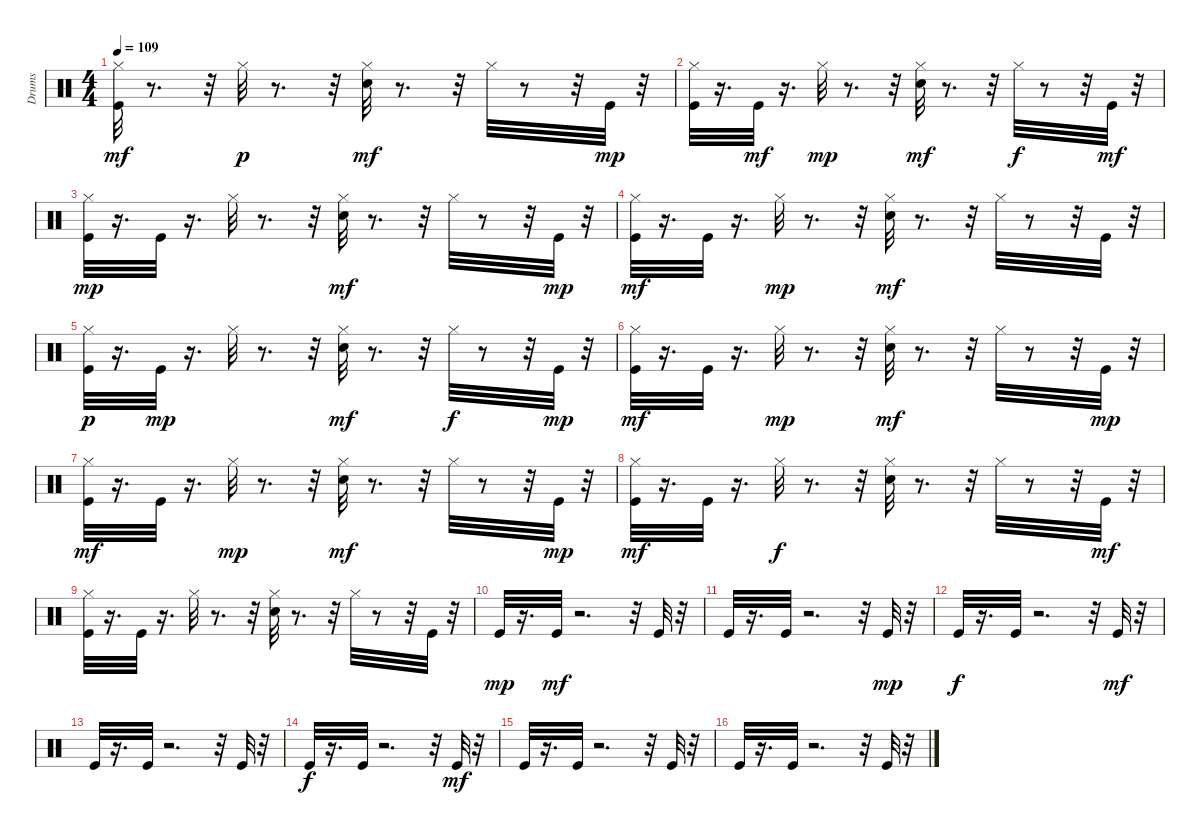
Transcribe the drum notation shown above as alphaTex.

\track ("Drums" "Drums") {solo instrument percussion}
\staff {score}
\articulation defaults
\ts (4 4)
\tempo 109
\clef neutral
\ks c
("Kick (hit)" "Hi-Hat (closed)").32{dy mf} r.8{d} r.32 "Hi-Hat (closed)".32{dy p} r.8{d} r.32 ("Hi-Hat (closed)" "Electric Snare (hit)").32{dy mf} r.8{d} r.32 "Hi-Hat (closed)".32 r.8 r.32 "Kick (hit)".32{dy mp} r.32 |
("Hi-Hat (closed)" "Kick (hit)").32 r.16{d} "Kick (hit)".32{dy mf} r.16{d} "Hi-Hat (closed)".32{dy mp} r.8{d} r.32 ("Hi-Hat (closed)" "Electric Snare (hit)").32{dy mf} r.8{d} r.32 "Hi-Hat (closed)".32{dy f} r.8 r.32 "Kick (hit)".32{dy mf} r.32 |
("Kick (hit)" "Hi-Hat (closed)").32{dy mp} r.16{d} "Kick (hit)".32 r.16{d} "Hi-Hat (closed)".32 r.8{d} r.32 ("Electric Snare (hit)" "Hi-Hat (closed)").32{dy mf} r.8{d} r.32 "Hi-Hat (closed)".32 r.8 r.32 "Kick (hit)".32{dy mp} r.32 |
("Hi-Hat (closed)" "Kick (hit)").32{dy mf} r.16{d} "Kick (hit)".32 r.16{d} "Hi-Hat (closed)".32{dy mp} r.8{d} r.32 ("Electric Snare (hit)" "Hi-Hat (closed)").32{dy mf} r.8{d} r.32 "Hi-Hat (closed)".32 r.8 r.32 "Kick (hit)".32 r.32 |
("Kick (hit)" "Hi-Hat (closed)").32{dy p} r.16{d} "Kick (hit)".32{dy mp} r.16{d} "Hi-Hat (closed)".32 r.8{d} r.32 ("Electric Snare (hit)" "Hi-Hat (closed)").32{dy mf} r.8{d} r.32 "Hi-Hat (closed)".32{dy f} r.8 r.32 "Kick (hit)".32{dy mp} r.32 |
("Hi-Hat (closed)" "Kick (hit)").32{dy mf} r.16{d} "Kick (hit)".32 r.16{d} "Hi-Hat (closed)".32{dy mp} r.8{d} r.32 ("Electric Snare (hit)" "Hi-Hat (closed)").32{dy mf} r.8{d} r.32 "Hi-Hat (closed)".32 r.8 r.32 "Kick (hit)".32{dy mp} r.32 |
("Hi-Hat (closed)" "Kick (hit)").32{dy mf} r.16{d} "Kick (hit)".32 r.16{d} "Hi-Hat (closed)".32{dy mp} r.8{d} r.32 ("Electric Snare (hit)" "Hi-Hat (closed)").32{dy mf} r.8{d} r.32 "Hi-Hat (closed)".32 r.8 r.32 "Kick (hit)".32{dy mp} r.32 |
("Kick (hit)" "Hi-Hat (closed)").32{dy mf} r.16{d} "Kick (hit)".32 r.16{d} "Hi-Hat (closed)".32{dy f} r.8{d} r.32 ("Electric Snare (hit)" "Hi-Hat (closed)").32 r.8{d} r.32 "Hi-Hat (closed)".32 r.8 r.32 "Kick (hit)".32{dy mf} r.32 |
("Hi-Hat (closed)" "Kick (hit)").32 r.16{d} "Kick (hit)".32 r.16{d} "Hi-Hat (closed)".32 r.8{d} r.32 ("Hi-Hat (closed)" "Electric Snare (hit)").32 r.8{d} r.32 "Hi-Hat (closed)".32 r.8 r.32 "Kick (hit)".32 r.32 |
"Kick (hit)".32{dy mp} r.16{d} "Kick (hit)".32{dy mf} r.2{d} r.32 "Kick (hit)".32 r.32 |
"Kick (hit)".32 r.16{d} "Kick (hit)".32 r.2{d} r.32 "Kick (hit)".32{dy mp} r.32 |
"Kick (hit)".32{dy f} r.16{d} "Kick (hit)".32 r.2{d} r.32 "Kick (hit)".32{dy mf} r.32 |
"Kick (hit)".32 r.16{d} "Kick (hit)".32 r.2{d} r.32 "Kick (hit)".32 r.32 |
"Kick (hit)".32{dy f} r.16{d} "Kick (hit)".32 r.2{d} r.32 "Kick (hit)".32{dy mf} r.32 |
"Kick (hit)".32 r.16{d} "Kick (hit)".32 r.2{d} r.32 "Kick (hit)".32 r.32 |
"Kick (hit)".32 r.16{d} "Kick (hit)".32 r.2{d} r.32 "Kick (hit)".32 r.32
